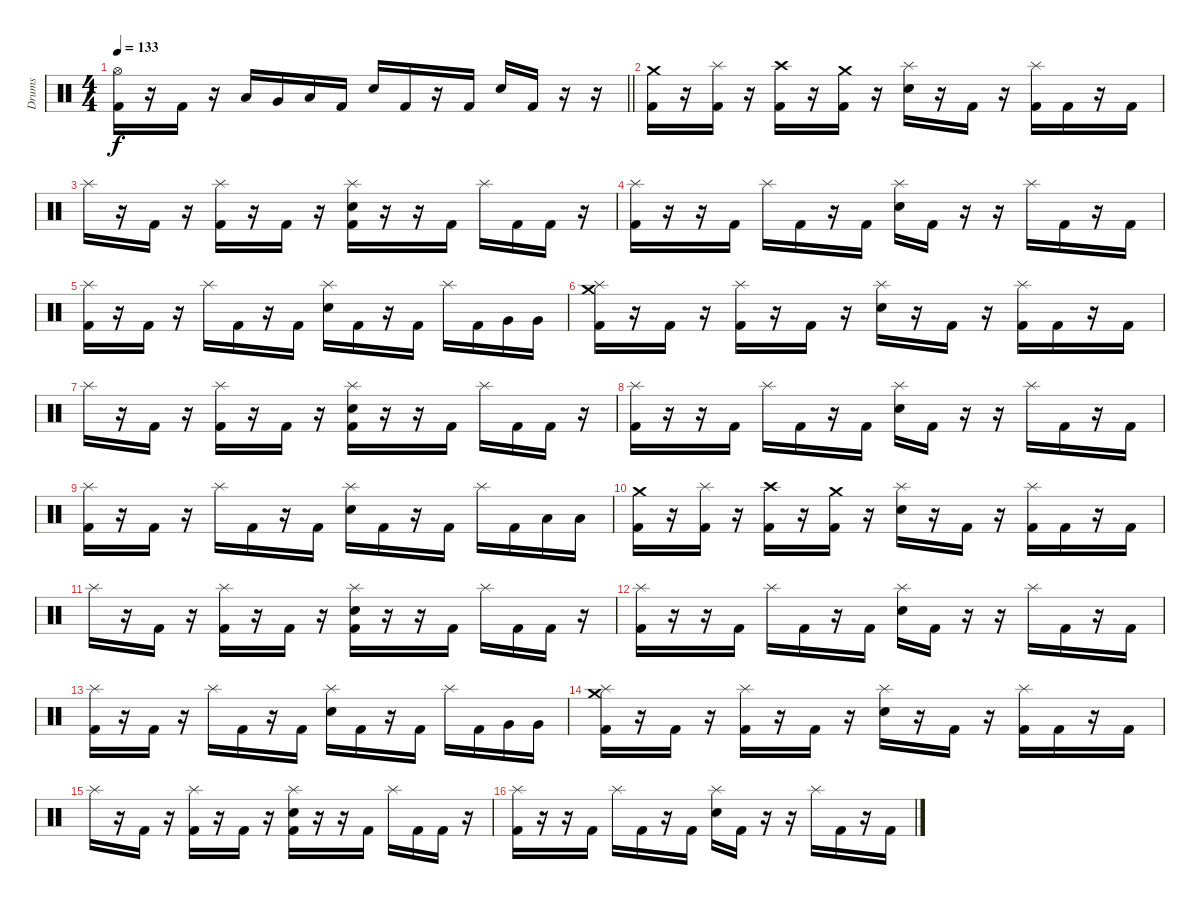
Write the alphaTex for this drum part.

\track ("Drums" "Drums") {instrument percussion}
\staff {score}
\articulation defaults
\ts (4 4)
\tempo 133
\clef neutral
\barLineRight lightlight
\ks c
("Hi-Hat (open)" "Kick (hit) 2").16{dy f} r.16 "Kick (hit) 2".16 r.16 "Low Tom (hit)".16 "Very Low Tom (hit)".16 "Low Floor Tom (hit)".16 "Kick (hit) 2".16 "Electric Snare (hit)".16 "Kick (hit) 2".16 r.16 "Kick (hit) 2".16 "Electric Snare (hit)".16 "Kick (hit) 2".16 r.16 r.16 |
\section ("" "")
("Crash medium (hit)" "Kick (hit) 2").16 r.16 ("Splash (hit)" "Kick (hit) 2").16 r.16 ("Crash high (hit)" "Kick (hit) 2").16 r.16 ("Crash medium (hit)" "Kick (hit) 2").16 r.16 ("Splash (hit)" "Electric Snare (hit)").16 r.16 "Kick (hit) 2".16 r.16 ("Splash (hit)" "Kick (hit) 2").16 "Kick (hit) 2".16 r.16 "Kick (hit) 2".16 |
"Splash (hit)".16 r.16 "Kick (hit) 2".16 r.16 ("Splash (hit)" "Kick (hit) 2").16 r.16 "Kick (hit) 2".16 r.16 ("Splash (hit)" "Electric Snare (hit)" "Kick (hit) 2").16 r.16 r.16 "Kick (hit) 2".16 "Splash (hit)".16 "Kick (hit) 2".16 "Kick (hit) 2".16 r.16 |
("Splash (hit)" "Kick (hit) 2").16 r.16 r.16 "Kick (hit) 2".16 "Splash (hit)".16 "Kick (hit) 2".16 r.16 "Kick (hit) 2".16 ("Splash (hit)" "Electric Snare (hit)").16 "Kick (hit) 2".16 r.16 r.16 "Splash (hit)".16 "Kick (hit) 2".16 r.16 "Kick (hit) 2".16 |
("Splash (hit)" "Kick (hit) 2").16 r.16 "Kick (hit) 2".16 r.16 "Splash (hit)".16 "Kick (hit) 2".16 r.16 "Kick (hit) 2".16 ("Splash (hit)" "Electric Snare (hit)").16 "Kick (hit) 2".16 r.16 "Kick (hit) 2".16 "Splash (hit)".16 "Kick (hit) 2".16 "Very Low Tom (hit)".16 "Very Low Tom (hit)".16 |
("Crash medium (hit)" "Splash (hit)" "Kick (hit) 2").16 r.16 "Kick (hit) 2".16 r.16 ("Splash (hit)" "Kick (hit) 2").16 r.16 "Kick (hit) 2".16 r.16 ("Splash (hit)" "Electric Snare (hit)").16 r.16 "Kick (hit) 2".16 r.16 ("Splash (hit)" "Kick (hit) 2").16 "Kick (hit) 2".16 r.16 "Kick (hit) 2".16 |
"Splash (hit)".16 r.16 "Kick (hit) 2".16 r.16 ("Splash (hit)" "Kick (hit) 2").16 r.16 "Kick (hit) 2".16 r.16 ("Splash (hit)" "Electric Snare (hit)" "Kick (hit) 2").16 r.16 r.16 "Kick (hit) 2".16 "Splash (hit)".16 "Kick (hit) 2".16 "Kick (hit) 2".16 r.16 |
("Splash (hit)" "Kick (hit) 2").16 r.16 r.16 "Kick (hit) 2".16 "Splash (hit)".16 "Kick (hit) 2".16 r.16 "Kick (hit) 2".16 ("Splash (hit)" "Electric Snare (hit)").16 "Kick (hit) 2".16 r.16 r.16 "Splash (hit)".16 "Kick (hit) 2".16 r.16 "Kick (hit) 2".16 |
("Splash (hit)" "Kick (hit) 2").16 r.16 "Kick (hit) 2".16 r.16 "Splash (hit)".16 "Kick (hit) 2".16 r.16 "Kick (hit) 2".16 ("Splash (hit)" "Electric Snare (hit)").16 "Kick (hit) 2".16 r.16 "Kick (hit) 2".16 "Splash (hit)".16 "Kick (hit) 2".16 "Low Tom (hit)".16 "Low Tom (hit)".16 |
("Crash medium (hit)" "Kick (hit) 2").16 r.16 ("Splash (hit)" "Kick (hit) 2").16 r.16 ("Crash high (hit)" "Kick (hit) 2").16 r.16 ("Crash medium (hit)" "Kick (hit) 2").16 r.16 ("Splash (hit)" "Electric Snare (hit)").16 r.16 "Kick (hit) 2".16 r.16 ("Splash (hit)" "Kick (hit) 2").16 "Kick (hit) 2".16 r.16 "Kick (hit) 2".16 |
"Splash (hit)".16 r.16 "Kick (hit) 2".16 r.16 ("Splash (hit)" "Kick (hit) 2").16 r.16 "Kick (hit) 2".16 r.16 ("Splash (hit)" "Electric Snare (hit)" "Kick (hit) 2").16 r.16 r.16 "Kick (hit) 2".16 "Splash (hit)".16 "Kick (hit) 2".16 "Kick (hit) 2".16 r.16 |
("Splash (hit)" "Kick (hit) 2").16 r.16 r.16 "Kick (hit) 2".16 "Splash (hit)".16 "Kick (hit) 2".16 r.16 "Kick (hit) 2".16 ("Splash (hit)" "Electric Snare (hit)").16 "Kick (hit) 2".16 r.16 r.16 "Splash (hit)".16 "Kick (hit) 2".16 r.16 "Kick (hit) 2".16 |
("Splash (hit)" "Kick (hit) 2").16 r.16 "Kick (hit) 2".16 r.16 "Splash (hit)".16 "Kick (hit) 2".16 r.16 "Kick (hit) 2".16 ("Splash (hit)" "Electric Snare (hit)").16 "Kick (hit) 2".16 r.16 "Kick (hit) 2".16 "Splash (hit)".16 "Kick (hit) 2".16 "Very Low Tom (hit)".16 "Very Low Tom (hit)".16 |
("Crash medium (hit)" "Splash (hit)" "Kick (hit) 2").16 r.16 "Kick (hit) 2".16 r.16 ("Splash (hit)" "Kick (hit) 2").16 r.16 "Kick (hit) 2".16 r.16 ("Splash (hit)" "Electric Snare (hit)").16 r.16 "Kick (hit) 2".16 r.16 ("Splash (hit)" "Kick (hit) 2").16 "Kick (hit) 2".16 r.16 "Kick (hit) 2".16 |
"Splash (hit)".16 r.16 "Kick (hit) 2".16 r.16 ("Splash (hit)" "Kick (hit) 2").16 r.16 "Kick (hit) 2".16 r.16 ("Splash (hit)" "Electric Snare (hit)" "Kick (hit) 2").16 r.16 r.16 "Kick (hit) 2".16 "Splash (hit)".16 "Kick (hit) 2".16 "Kick (hit) 2".16 r.16 |
("Splash (hit)" "Kick (hit) 2").16 r.16 r.16 "Kick (hit) 2".16 "Splash (hit)".16 "Kick (hit) 2".16 r.16 "Kick (hit) 2".16 ("Splash (hit)" "Electric Snare (hit)").16 "Kick (hit) 2".16 r.16 r.16 "Splash (hit)".16 "Kick (hit) 2".16 r.16 "Kick (hit) 2".16
